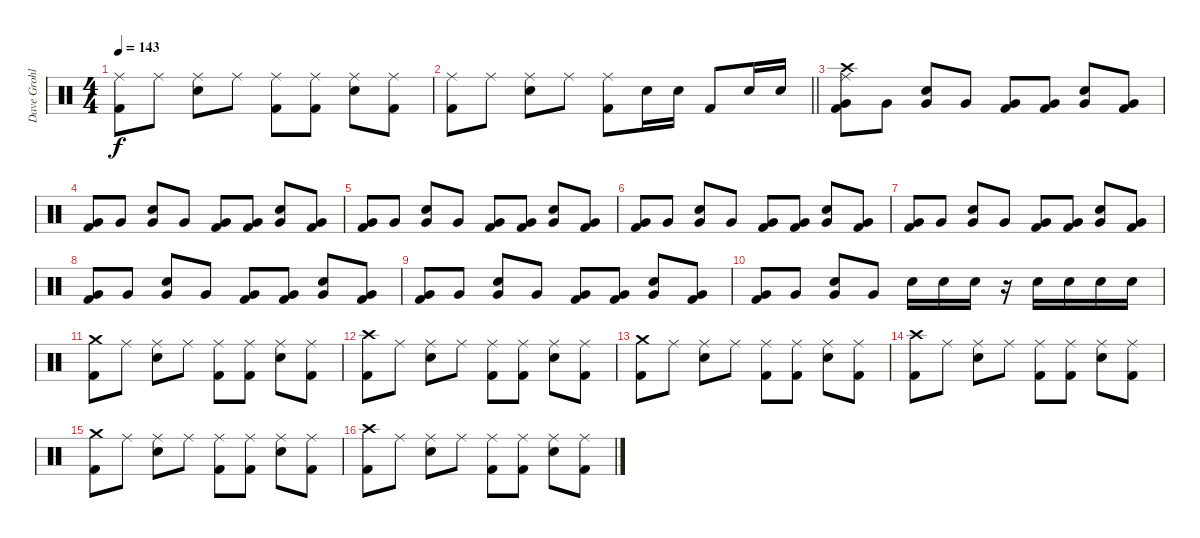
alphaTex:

\track ("Dave Grohl" "Dave Grohl") {instrument percussion}
\staff {score}
\articulation defaults
\ts (4 4)
\tempo 143
\clef neutral
\ks c
("Ride (middle)" "Kick (hit) 2").8{dy f} "Ride (middle)".8 ("Ride (middle)" "Snare (hit) 2").8 "Ride (middle)".8 ("Ride (middle)" "Kick (hit) 2").8 ("Ride (middle)" "Kick (hit) 2").8 ("Ride (middle)" "Snare (hit) 2").8 ("Ride (middle)" "Kick (hit) 2").8 |
\barLineRight lightlight
("Ride (middle)" "Kick (hit) 2").8 "Ride (middle)".8 ("Ride (middle)" "Snare (hit) 2").8 "Ride (middle)".8 ("Ride (middle)" "Kick (hit) 2").8 "Snare (hit) 2".16 "Snare (hit) 2".16 "Kick (hit) 2".8 "Snare (hit) 2".16 "Snare (hit) 2".16 |
("Crash high (hit)" "Ride (middle)" "Very Low Tom (hit)" "Kick (hit) 2").8 "Very Low Tom (hit)".8 ("Very Low Tom (hit)" "Snare (hit) 2").8 "Very Low Tom (hit)".8 ("Very Low Tom (hit)" "Kick (hit) 2").8 ("Very Low Tom (hit)" "Kick (hit) 2").8 ("Very Low Tom (hit)" "Snare (hit) 2").8 ("Very Low Tom (hit)" "Kick (hit) 2").8 |
("Very Low Tom (hit)" "Kick (hit) 2").8 "Very Low Tom (hit)".8 ("Very Low Tom (hit)" "Snare (hit) 2").8 "Very Low Tom (hit)".8 ("Very Low Tom (hit)" "Kick (hit) 2").8 ("Very Low Tom (hit)" "Kick (hit) 2").8 ("Very Low Tom (hit)" "Snare (hit) 2").8 ("Very Low Tom (hit)" "Kick (hit) 2").8 |
("Very Low Tom (hit)" "Kick (hit) 2").8 "Very Low Tom (hit)".8 ("Very Low Tom (hit)" "Snare (hit) 2").8 "Very Low Tom (hit)".8 ("Very Low Tom (hit)" "Kick (hit) 2").8 ("Very Low Tom (hit)" "Kick (hit) 2").8 ("Very Low Tom (hit)" "Snare (hit) 2").8 ("Very Low Tom (hit)" "Kick (hit) 2").8 |
("Very Low Tom (hit)" "Kick (hit) 2").8 "Very Low Tom (hit)".8 ("Very Low Tom (hit)" "Snare (hit) 2").8 "Very Low Tom (hit)".8 ("Very Low Tom (hit)" "Kick (hit) 2").8 ("Very Low Tom (hit)" "Kick (hit) 2").8 ("Very Low Tom (hit)" "Snare (hit) 2").8 ("Very Low Tom (hit)" "Kick (hit) 2").8 |
("Very Low Tom (hit)" "Kick (hit) 2").8 "Very Low Tom (hit)".8 ("Very Low Tom (hit)" "Snare (hit) 2").8 "Very Low Tom (hit)".8 ("Very Low Tom (hit)" "Kick (hit) 2").8 ("Very Low Tom (hit)" "Kick (hit) 2").8 ("Very Low Tom (hit)" "Snare (hit) 2").8 ("Very Low Tom (hit)" "Kick (hit) 2").8 |
("Very Low Tom (hit)" "Kick (hit) 2").8 "Very Low Tom (hit)".8 ("Very Low Tom (hit)" "Snare (hit) 2").8 "Very Low Tom (hit)".8 ("Very Low Tom (hit)" "Kick (hit) 2").8 ("Very Low Tom (hit)" "Kick (hit) 2").8 ("Very Low Tom (hit)" "Snare (hit) 2").8 ("Very Low Tom (hit)" "Kick (hit) 2").8 |
("Very Low Tom (hit)" "Kick (hit) 2").8 "Very Low Tom (hit)".8 ("Very Low Tom (hit)" "Snare (hit) 2").8 "Very Low Tom (hit)".8 ("Very Low Tom (hit)" "Kick (hit) 2").8 ("Very Low Tom (hit)" "Kick (hit) 2").8 ("Very Low Tom (hit)" "Snare (hit) 2").8 ("Very Low Tom (hit)" "Kick (hit) 2").8 |
("Very Low Tom (hit)" "Kick (hit) 2").8 "Very Low Tom (hit)".8 ("Very Low Tom (hit)" "Snare (hit) 2").8 "Very Low Tom (hit)".8 "Snare (hit) 2".16 "Snare (hit) 2".16 "Snare (hit) 2".16 r.16 "Snare (hit) 2".16 "Snare (hit) 2".16 "Snare (hit) 2".16 "Snare (hit) 2".16 |
("Crash medium (hit)" "Kick (hit) 2").8 "Ride (middle)".8 ("Ride (middle)" "Snare (hit) 2").8 "Ride (middle)".8 ("Ride (middle)" "Kick (hit) 2").8 ("Ride (middle)" "Kick (hit) 2").8 ("Ride (middle)" "Snare (hit) 2").8 ("Ride (middle)" "Kick (hit) 2").8 |
("Crash high (hit)" "Kick (hit) 2").8 "Ride (middle)".8 ("Ride (middle)" "Snare (hit) 2").8 "Ride (middle)".8 ("Ride (middle)" "Kick (hit) 2").8 ("Ride (middle)" "Kick (hit) 2").8 ("Ride (middle)" "Snare (hit) 2").8 ("Ride (middle)" "Kick (hit) 2").8 |
("Crash medium (hit)" "Kick (hit) 2").8 "Ride (middle)".8 ("Ride (middle)" "Snare (hit) 2").8 "Ride (middle)".8 ("Ride (middle)" "Kick (hit) 2").8 ("Ride (middle)" "Kick (hit) 2").8 ("Ride (middle)" "Snare (hit) 2").8 ("Ride (middle)" "Kick (hit) 2").8 |
("Crash high (hit)" "Kick (hit) 2").8 "Ride (middle)".8 ("Ride (middle)" "Snare (hit) 2").8 "Ride (middle)".8 ("Ride (middle)" "Kick (hit) 2").8 ("Ride (middle)" "Kick (hit) 2").8 ("Ride (middle)" "Snare (hit) 2").8 ("Ride (middle)" "Kick (hit) 2").8 |
("Crash medium (hit)" "Kick (hit) 2").8 "Ride (middle)".8 ("Ride (middle)" "Snare (hit) 2").8 "Ride (middle)".8 ("Ride (middle)" "Kick (hit) 2").8 ("Ride (middle)" "Kick (hit) 2").8 ("Ride (middle)" "Snare (hit) 2").8 ("Ride (middle)" "Kick (hit) 2").8 |
("Crash high (hit)" "Kick (hit) 2").8 "Ride (middle)".8 ("Ride (middle)" "Snare (hit) 2").8 "Ride (middle)".8 ("Ride (middle)" "Kick (hit) 2").8 ("Ride (middle)" "Kick (hit) 2").8 ("Ride (middle)" "Snare (hit) 2").8 ("Ride (middle)" "Kick (hit) 2").8
